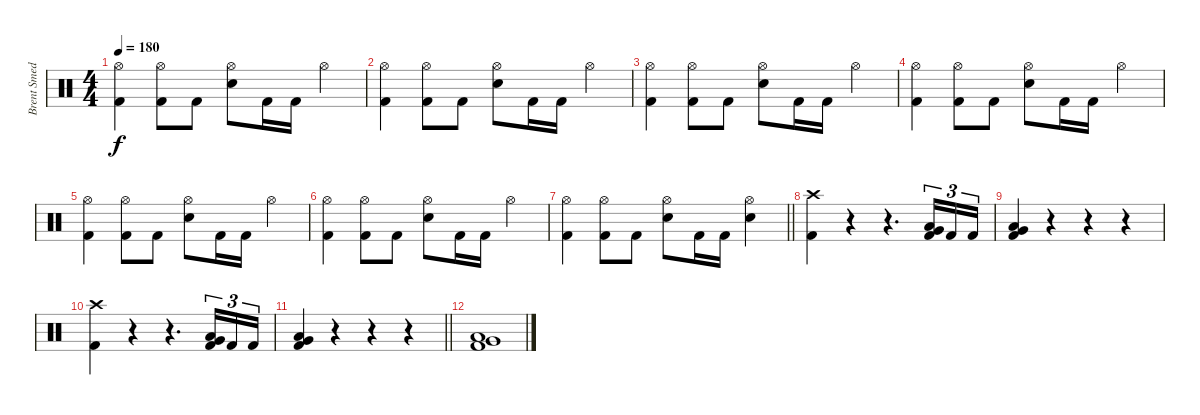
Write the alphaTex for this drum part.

\track ("Brent Smedley" "Brent Smed") {instrument percussion}
\staff {score}
\articulation defaults
\ts (4 4)
\tempo 180
\clef neutral
\ks c
("Hi-Hat (open)" "Kick (hit) 2").4{dy f} ("Hi-Hat (open)" "Kick (hit) 2").8 "Kick (hit) 2".8 ("Hi-Hat (open)" "Snare (hit) 2").8 "Kick (hit) 2".16 "Kick (hit) 2".16 "Hi-Hat (open)".4 |
("Hi-Hat (open)" "Kick (hit) 2").4 ("Hi-Hat (open)" "Kick (hit) 2").8 "Kick (hit) 2".8 ("Hi-Hat (open)" "Snare (hit) 2").8 "Kick (hit) 2".16 "Kick (hit) 2".16 "Hi-Hat (open)".4 |
("Hi-Hat (open)" "Kick (hit) 2").4 ("Hi-Hat (open)" "Kick (hit) 2").8 "Kick (hit) 2".8 ("Hi-Hat (open)" "Snare (hit) 2").8 "Kick (hit) 2".16 "Kick (hit) 2".16 "Hi-Hat (open)".4 |
("Hi-Hat (open)" "Kick (hit) 2").4 ("Hi-Hat (open)" "Kick (hit) 2").8 "Kick (hit) 2".8 ("Hi-Hat (open)" "Snare (hit) 2").8 "Kick (hit) 2".16 "Kick (hit) 2".16 "Hi-Hat (open)".4 |
("Hi-Hat (open)" "Kick (hit) 2").4 ("Hi-Hat (open)" "Kick (hit) 2").8 "Kick (hit) 2".8 ("Hi-Hat (open)" "Snare (hit) 2").8 "Kick (hit) 2".16 "Kick (hit) 2".16 "Hi-Hat (open)".4 |
("Hi-Hat (open)" "Kick (hit) 2").4 ("Hi-Hat (open)" "Kick (hit) 2").8 "Kick (hit) 2".8 ("Hi-Hat (open)" "Snare (hit) 2").8 "Kick (hit) 2".16 "Kick (hit) 2".16 "Hi-Hat (open)".4 |
\barLineRight lightlight
("Hi-Hat (open)" "Kick (hit) 2").4 ("Hi-Hat (open)" "Kick (hit) 2").8 "Kick (hit) 2".8 ("Hi-Hat (open)" "Snare (hit) 2").8 "Kick (hit) 2".16 "Kick (hit) 2".16 ("Hi-Hat (open)" "Snare (hit) 2").4 |
("Crash high (hit)" "Kick (hit) 2").4 r.4 r.4{d} ("Low Tom (hit)" "Very Low Tom (hit)" "Kick (hit) 2").16{tu (3 2)} "Kick (hit) 2".16{tu (3 2)} "Kick (hit) 2".16{tu (3 2)} |
("Low Tom (hit)" "Very Low Tom (hit)" "Kick (hit) 2").4 r.4 r.4 r.4 |
("Crash high (hit)" "Kick (hit) 2").4 r.4 r.4{d} ("Low Tom (hit)" "Very Low Tom (hit)" "Kick (hit) 2").16{tu (3 2)} "Kick (hit) 2".16{tu (3 2)} "Kick (hit) 2".16{tu (3 2)} |
\barLineRight lightlight
("Low Tom (hit)" "Very Low Tom (hit)" "Kick (hit) 2").4 r.4 r.4 r.4 |
("Low Tom (hit)" "Very Low Tom (hit)" "Kick (hit) 2").1
